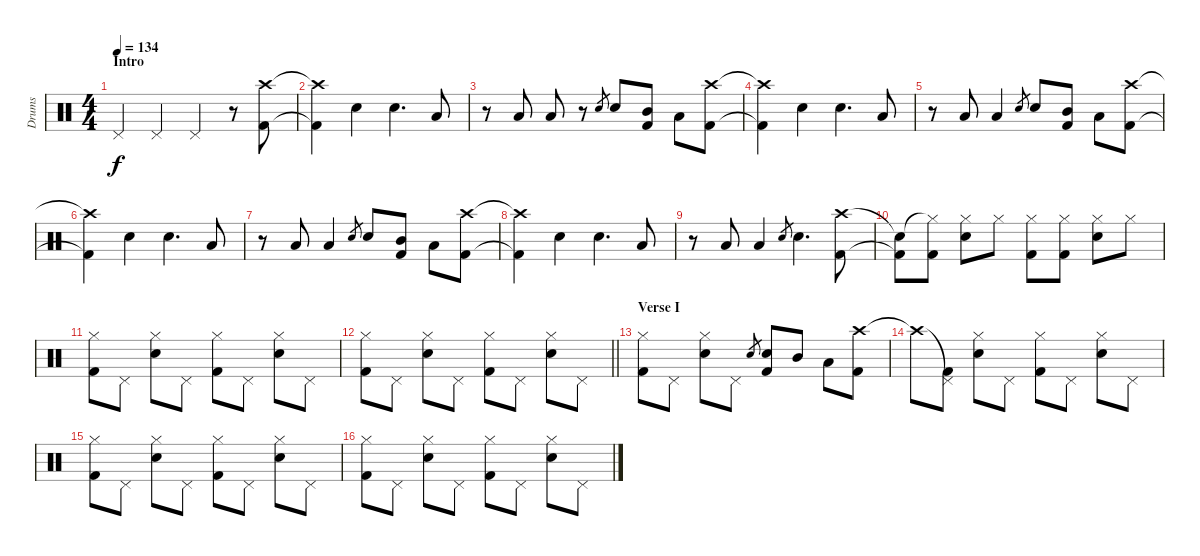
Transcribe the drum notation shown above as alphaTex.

\track ("Drums" "Drums") {instrument percussion}
\staff {score}
\articulation defaults
\ts (4 4)
\section ("" "Intro")
\tempo 134
\clef neutral
\ks c "Pedal Hi-Hat (hit)".4{dy f} "Pedal Hi-Hat (hit)".4 "Pedal Hi-Hat (hit)".4
r.8 ("Crash high (hit)" "Kick (hit) 2").8 |
("Crash high (hit)"{t} "Kick (hit) 2"{t}).4 "Snare (hit) 2".4 "Snare (hit) 2".4{d} "Low Tom (hit)".8 |
r.8 "Low Tom (hit)".8 "Low Tom (hit)".8 r.8 "Snare (hit) 2".8{gr} "Snare (hit) 2".8 ("Mid Tom (hit)" "Kick (hit) 2").8 "Low Tom (hit)".8 ("Crash high (hit)" "Kick (hit) 2").8 |
("Crash high (hit)"{t} "Kick (hit) 2"{t}).4 "Snare (hit) 2".4 "Snare (hit) 2".4{d} "Low Tom (hit)".8 |
r.8 "Low Tom (hit)".8 "Low Tom (hit)".4 "Snare (hit) 2".8{gr} "Snare (hit) 2".8 ("Mid Tom (hit)" "Kick (hit) 2").8 "Low Tom (hit)".8 ("Crash high (hit)" "Kick (hit) 2").8 |
("Crash high (hit)"{t} "Kick (hit) 2"{t}).4 "Snare (hit) 2".4 "Snare (hit) 2".4{d} "Low Tom (hit)".8 |
r.8 "Low Tom (hit)".8 "Low Tom (hit)".4 "Snare (hit) 2".8{gr} "Snare (hit) 2".8 ("Mid Tom (hit)" "Kick (hit) 2").8 "Low Tom (hit)".8 ("Crash high (hit)" "Kick (hit) 2").8 |
("Crash high (hit)"{t} "Kick (hit) 2"{t}).4 "Snare (hit) 2".4 "Snare (hit) 2".4{d} "Low Tom (hit)".8 |
r.8 "Low Tom (hit)".8 "Low Tom (hit)".4 "Snare (hit) 2".8{gr} "Snare (hit) 2".4{d} ("Crash high (hit)" "Kick (hit) 2").8 |
("Snare (hit)"{t} "Kick (hit) 2"{t}).8 ("Hi-Hat (closed)"{t} "Kick (hit) 2").8 ("Hi-Hat (closed)" "Snare (hit) 2").8 "Hi-Hat (closed)".8 ("Hi-Hat (closed)" "Kick (hit) 2").8 ("Hi-Hat (closed)" "Kick (hit) 2").8 ("Hi-Hat (closed)" "Snare (hit) 2").8 "Hi-Hat (closed)".8 |
("Hi-Hat (closed)" "Kick (hit) 2").8 "Pedal Hi-Hat (hit)".8 ("Hi-Hat (closed)" "Snare (hit) 2").8 "Pedal Hi-Hat (hit)".8 ("Hi-Hat (closed)" "Kick (hit) 2").8 "Pedal Hi-Hat (hit)".8 ("Hi-Hat (closed)" "Snare (hit) 2").8 "Pedal Hi-Hat (hit)".8 |
\barLineRight lightlight
("Hi-Hat (closed)" "Kick (hit) 2").8 "Pedal Hi-Hat (hit)".8 ("Hi-Hat (closed)" "Snare (hit) 2").8 "Pedal Hi-Hat (hit)".8 ("Hi-Hat (closed)" "Kick (hit) 2").8 "Pedal Hi-Hat (hit)".8 ("Hi-Hat (closed)" "Snare (hit) 2").8 "Pedal Hi-Hat (hit)".8 |
\section ("" "Verse I")
("Hi-Hat (closed)" "Kick (hit) 2").8 "Pedal Hi-Hat (hit)".8 ("Hi-Hat (closed)" "Snare (hit) 2").8 "Pedal Hi-Hat (hit)".8 "Snare (hit) 2".8{gr} ("Snare (hit) 2" "Kick (hit) 2").8 "Mid Tom (hit)".8 "Low Tom (hit)".8 ("Crash high (hit)" "Kick (hit) 2").8 |
"Crash high (hit)"{t}.8 ("Pedal Hi-Hat (hit)"{t} "Kick (hit) 2").8 ("Hi-Hat (closed)" "Snare (hit) 2").8 "Pedal Hi-Hat (hit)".8 ("Hi-Hat (closed)" "Kick (hit) 2").8 "Pedal Hi-Hat (hit)".8 ("Hi-Hat (closed)" "Snare (hit) 2").8 "Pedal Hi-Hat (hit)".8 |
("Hi-Hat (closed)" "Kick (hit) 2").8 "Pedal Hi-Hat (hit)".8 ("Hi-Hat (closed)" "Snare (hit) 2").8 "Pedal Hi-Hat (hit)".8 ("Hi-Hat (closed)" "Kick (hit) 2").8 "Pedal Hi-Hat (hit)".8 ("Hi-Hat (closed)" "Snare (hit) 2").8 "Pedal Hi-Hat (hit)".8 |
("Hi-Hat (closed)" "Kick (hit) 2").8 "Pedal Hi-Hat (hit)".8 ("Hi-Hat (closed)" "Snare (hit) 2").8 "Pedal Hi-Hat (hit)".8 ("Hi-Hat (closed)" "Kick (hit) 2").8 "Pedal Hi-Hat (hit)".8 ("Hi-Hat (closed)" "Snare (hit) 2").8 "Pedal Hi-Hat (hit)".8
